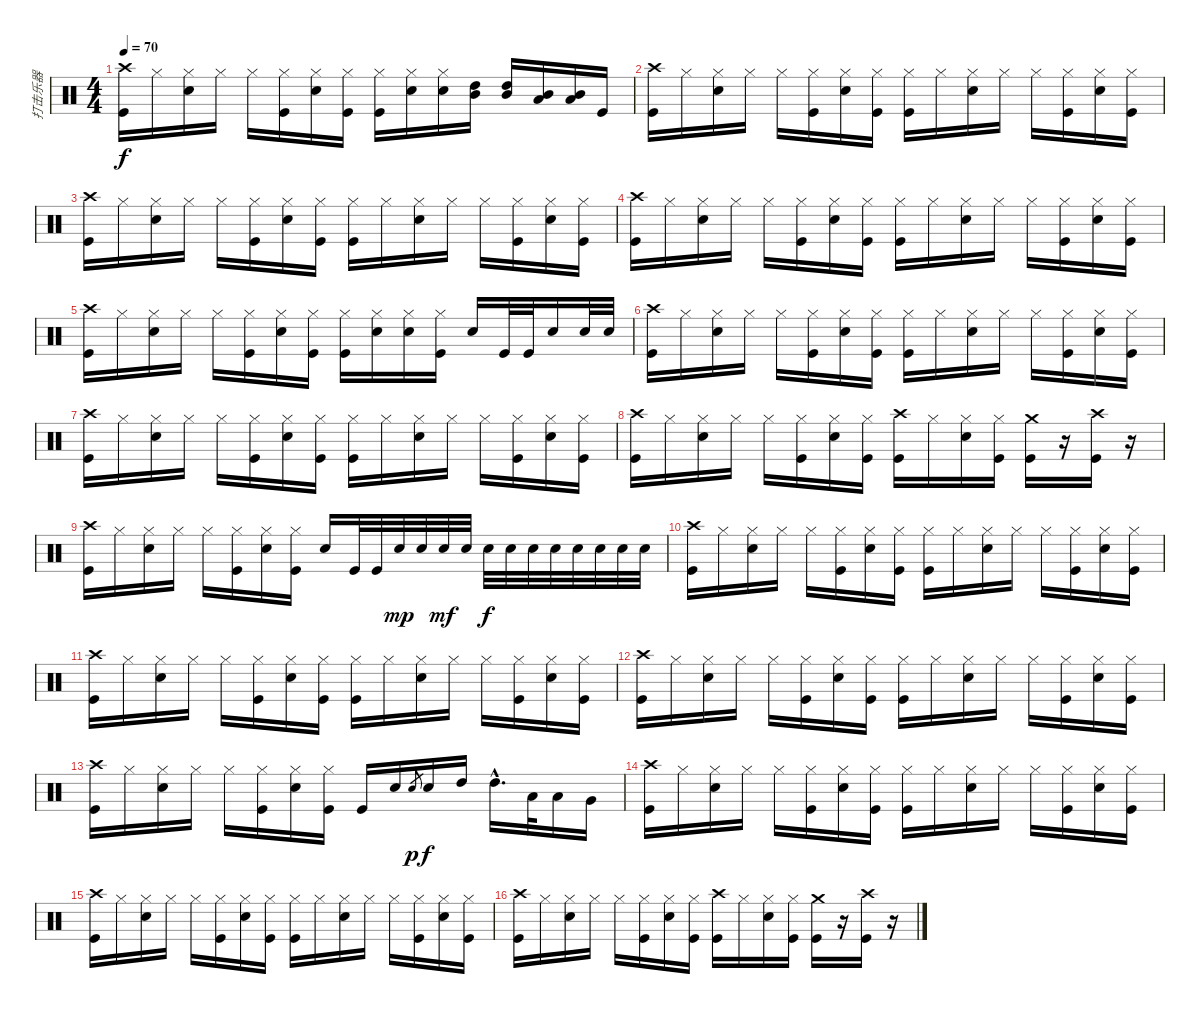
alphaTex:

\track ("打击乐器" "打击乐器") {instrument percussion}
\staff {score}
\articulation defaults
\ts (4 4)
\tempo 70
\clef neutral
\ks c
("Crash high (hit)" "Kick (hit)").16{dy f} "Hi-Hat (closed)".16 ("Hi-Hat (closed)" "Electric Snare (hit)").16 "Hi-Hat (closed)".16 "Hi-Hat (closed)".16 ("Hi-Hat (closed)" "Kick (hit)").16 ("Hi-Hat (closed)" "Electric Snare (hit)").16 ("Hi-Hat (closed)" "Kick (hit)").16 ("Hi-Hat (closed)" "Kick (hit)").16 ("Hi-Hat (closed)" "Electric Snare (hit)").16 ("Hi-Hat (closed)" "Electric Snare (hit)").16 ("High Tom (hit)" "Mid Tom (hit)").16 ("High Tom (hit)" "Mid Tom (hit)").16 ("Mid Tom (hit)" "Low Tom (hit)").16 ("Mid Tom (hit)" "Low Tom (hit)").16 "Kick (hit)".16 |
("Crash high (hit)" "Kick (hit)").16 "Hi-Hat (closed)".16 ("Hi-Hat (closed)" "Electric Snare (hit)").16 "Hi-Hat (closed)".16 "Hi-Hat (closed)".16 ("Hi-Hat (closed)" "Kick (hit)").16 ("Hi-Hat (closed)" "Electric Snare (hit)").16 ("Hi-Hat (closed)" "Kick (hit)").16 ("Hi-Hat (closed)" "Kick (hit)").16 "Hi-Hat (closed)".16 ("Hi-Hat (closed)" "Electric Snare (hit)").16 "Hi-Hat (closed)".16 "Hi-Hat (closed)".16 ("Hi-Hat (closed)" "Kick (hit)").16 ("Hi-Hat (closed)" "Electric Snare (hit)").16 ("Hi-Hat (closed)" "Kick (hit)").16 |
("Crash high (hit)" "Kick (hit)").16 "Hi-Hat (closed)".16 ("Hi-Hat (closed)" "Electric Snare (hit)").16 "Hi-Hat (closed)".16 "Hi-Hat (closed)".16 ("Hi-Hat (closed)" "Kick (hit)").16 ("Hi-Hat (closed)" "Electric Snare (hit)").16 ("Hi-Hat (closed)" "Kick (hit)").16 ("Hi-Hat (closed)" "Kick (hit)").16 "Hi-Hat (closed)".16 ("Hi-Hat (closed)" "Electric Snare (hit)").16 "Hi-Hat (closed)".16 "Hi-Hat (closed)".16 ("Hi-Hat (closed)" "Kick (hit)").16 ("Hi-Hat (closed)" "Electric Snare (hit)").16 ("Hi-Hat (closed)" "Kick (hit)").16 |
("Crash high (hit)" "Kick (hit)").16 "Hi-Hat (closed)".16 ("Hi-Hat (closed)" "Electric Snare (hit)").16 "Hi-Hat (closed)".16 "Hi-Hat (closed)".16 ("Hi-Hat (closed)" "Kick (hit)").16 ("Hi-Hat (closed)" "Electric Snare (hit)").16 ("Hi-Hat (closed)" "Kick (hit)").16 ("Hi-Hat (closed)" "Kick (hit)").16 "Hi-Hat (closed)".16 ("Hi-Hat (closed)" "Electric Snare (hit)").16 "Hi-Hat (closed)".16 "Hi-Hat (closed)".16 ("Hi-Hat (closed)" "Kick (hit)").16 ("Hi-Hat (closed)" "Electric Snare (hit)").16 ("Hi-Hat (closed)" "Kick (hit)").16 |
("Crash high (hit)" "Kick (hit)").16 "Hi-Hat (closed)".16 ("Hi-Hat (closed)" "Electric Snare (hit)").16 "Hi-Hat (closed)".16 "Hi-Hat (closed)".16 ("Hi-Hat (closed)" "Kick (hit)").16 ("Hi-Hat (closed)" "Electric Snare (hit)").16 ("Hi-Hat (closed)" "Kick (hit)").16 ("Hi-Hat (closed)" "Kick (hit)").16 ("Hi-Hat (closed)" "Electric Snare (hit)").16 ("Hi-Hat (closed)" "Electric Snare (hit)").16 ("Hi-Hat (closed)" "Kick (hit)").16 "Electric Snare (hit)".16 "Kick (hit)".32 "Kick (hit)".32 "Electric Snare (hit)".16 "Electric Snare (hit)".32 "Electric Snare (hit)".32 |
("Crash high (hit)" "Kick (hit)").16 "Hi-Hat (closed)".16 ("Hi-Hat (closed)" "Electric Snare (hit)").16 "Hi-Hat (closed)".16 "Hi-Hat (closed)".16 ("Hi-Hat (closed)" "Kick (hit)").16 ("Hi-Hat (closed)" "Electric Snare (hit)").16 ("Hi-Hat (closed)" "Kick (hit)").16 ("Hi-Hat (closed)" "Kick (hit)").16 "Hi-Hat (closed)".16 ("Hi-Hat (closed)" "Electric Snare (hit)").16 "Hi-Hat (closed)".16 "Hi-Hat (closed)".16 ("Hi-Hat (closed)" "Kick (hit)").16 ("Hi-Hat (closed)" "Electric Snare (hit)").16 ("Hi-Hat (closed)" "Kick (hit)").16 |
("Crash high (hit)" "Kick (hit)").16 "Hi-Hat (closed)".16 ("Hi-Hat (closed)" "Electric Snare (hit)").16 "Hi-Hat (closed)".16 "Hi-Hat (closed)".16 ("Hi-Hat (closed)" "Kick (hit)").16 ("Hi-Hat (closed)" "Electric Snare (hit)").16 ("Hi-Hat (closed)" "Kick (hit)").16 ("Hi-Hat (closed)" "Kick (hit)").16 "Hi-Hat (closed)".16 ("Hi-Hat (closed)" "Electric Snare (hit)").16 "Hi-Hat (closed)".16 "Hi-Hat (closed)".16 ("Hi-Hat (closed)" "Kick (hit)").16 ("Hi-Hat (closed)" "Electric Snare (hit)").16 ("Hi-Hat (closed)" "Kick (hit)").16 |
("Crash high (hit)" "Kick (hit)").16 "Hi-Hat (closed)".16 ("Hi-Hat (closed)" "Electric Snare (hit)").16 "Hi-Hat (closed)".16 "Hi-Hat (closed)".16 ("Hi-Hat (closed)" "Kick (hit)").16 ("Hi-Hat (closed)" "Electric Snare (hit)").16 ("Hi-Hat (closed)" "Kick (hit)").16 ("Crash high (hit)" "Kick (hit)").16 "Hi-Hat (closed)".16 ("Hi-Hat (closed)" "Electric Snare (hit)").16 ("Hi-Hat (closed)" "Kick (hit)").16 ("Crash medium (hit)" "Kick (hit)").16 r.16 ("Crash high (hit)" "Kick (hit)").16 r.16 |
("Crash high (hit)" "Kick (hit)").16 "Hi-Hat (closed)".16 ("Hi-Hat (closed)" "Electric Snare (hit)").16 "Hi-Hat (closed)".16 "Hi-Hat (closed)".16 ("Hi-Hat (closed)" "Kick (hit)").16 ("Hi-Hat (closed)" "Electric Snare (hit)").16 ("Hi-Hat (closed)" "Kick (hit)").16 "Electric Snare (hit)".16 "Kick (hit)".32 "Kick (hit)".32 "Electric Snare (hit)".32{dy mp} "Electric Snare (hit)".32 "Electric Snare (hit)".32{dy mf} "Electric Snare (hit)".32 "Electric Snare (hit)".32{dy f} "Electric Snare (hit)".32 "Electric Snare (hit)".32 "Electric Snare (hit)".32 "Electric Snare (hit)".32 "Electric Snare (hit)".32 "Electric Snare (hit)".32 "Electric Snare (hit)".32 |
("Crash high (hit)" "Kick (hit)").16 "Hi-Hat (closed)".16 ("Hi-Hat (closed)" "Electric Snare (hit)").16 "Hi-Hat (closed)".16 "Hi-Hat (closed)".16 ("Hi-Hat (closed)" "Kick (hit)").16 ("Hi-Hat (closed)" "Electric Snare (hit)").16 ("Hi-Hat (closed)" "Kick (hit)").16 ("Hi-Hat (closed)" "Kick (hit)").16 "Hi-Hat (closed)".16 ("Hi-Hat (closed)" "Electric Snare (hit)").16 "Hi-Hat (closed)".16 "Hi-Hat (closed)".16 ("Hi-Hat (closed)" "Kick (hit)").16 ("Hi-Hat (closed)" "Electric Snare (hit)").16 ("Hi-Hat (closed)" "Kick (hit)").16 |
("Crash high (hit)" "Kick (hit)").16 "Hi-Hat (closed)".16 ("Hi-Hat (closed)" "Electric Snare (hit)").16 "Hi-Hat (closed)".16 "Hi-Hat (closed)".16 ("Hi-Hat (closed)" "Kick (hit)").16 ("Hi-Hat (closed)" "Electric Snare (hit)").16 ("Hi-Hat (closed)" "Kick (hit)").16 ("Hi-Hat (closed)" "Kick (hit)").16 "Hi-Hat (closed)".16 ("Hi-Hat (closed)" "Electric Snare (hit)").16 "Hi-Hat (closed)".16 "Hi-Hat (closed)".16 ("Hi-Hat (closed)" "Kick (hit)").16 ("Hi-Hat (closed)" "Electric Snare (hit)").16 ("Hi-Hat (closed)" "Kick (hit)").16 |
("Crash high (hit)" "Kick (hit)").16 "Hi-Hat (closed)".16 ("Hi-Hat (closed)" "Electric Snare (hit)").16 "Hi-Hat (closed)".16 "Hi-Hat (closed)".16 ("Hi-Hat (closed)" "Kick (hit)").16 ("Hi-Hat (closed)" "Electric Snare (hit)").16 ("Hi-Hat (closed)" "Kick (hit)").16 ("Hi-Hat (closed)" "Kick (hit)").16 "Hi-Hat (closed)".16 ("Hi-Hat (closed)" "Electric Snare (hit)").16 "Hi-Hat (closed)".16 "Hi-Hat (closed)".16 ("Hi-Hat (closed)" "Kick (hit)").16 ("Hi-Hat (closed)" "Electric Snare (hit)").16 ("Hi-Hat (closed)" "Kick (hit)").16 |
("Crash high (hit)" "Kick (hit)").16 "Hi-Hat (closed)".16 ("Hi-Hat (closed)" "Electric Snare (hit)").16 "Hi-Hat (closed)".16 "Hi-Hat (closed)".16 ("Hi-Hat (closed)" "Kick (hit)").16 ("Hi-Hat (closed)" "Electric Snare (hit)").16 ("Hi-Hat (closed)" "Kick (hit)").16 "Kick (hit)".16 "Electric Snare (hit)".16 "Electric Snare (hit)".8{gr dy p} "Electric Snare (hit)".16{dy f} "High Tom (hit)".16 "High Tom (hit)"{hac}.16{d} "Low Tom (hit)".32 "Low Tom (hit)".16 "Very Low Tom (hit)".16 |
("Crash high (hit)" "Kick (hit)").16 "Hi-Hat (closed)".16 ("Hi-Hat (closed)" "Electric Snare (hit)").16 "Hi-Hat (closed)".16 "Hi-Hat (closed)".16 ("Hi-Hat (closed)" "Kick (hit)").16 ("Hi-Hat (closed)" "Electric Snare (hit)").16 ("Hi-Hat (closed)" "Kick (hit)").16 ("Hi-Hat (closed)" "Kick (hit)").16 "Hi-Hat (closed)".16 ("Hi-Hat (closed)" "Electric Snare (hit)").16 "Hi-Hat (closed)".16 "Hi-Hat (closed)".16 ("Hi-Hat (closed)" "Kick (hit)").16 ("Hi-Hat (closed)" "Electric Snare (hit)").16 ("Hi-Hat (closed)" "Kick (hit)").16 |
("Crash high (hit)" "Kick (hit)").16 "Hi-Hat (closed)".16 ("Hi-Hat (closed)" "Electric Snare (hit)").16 "Hi-Hat (closed)".16 "Hi-Hat (closed)".16 ("Hi-Hat (closed)" "Kick (hit)").16 ("Hi-Hat (closed)" "Electric Snare (hit)").16 ("Hi-Hat (closed)" "Kick (hit)").16 ("Hi-Hat (closed)" "Kick (hit)").16 "Hi-Hat (closed)".16 ("Hi-Hat (closed)" "Electric Snare (hit)").16 "Hi-Hat (closed)".16 "Hi-Hat (closed)".16 ("Hi-Hat (closed)" "Kick (hit)").16 ("Hi-Hat (closed)" "Electric Snare (hit)").16 ("Hi-Hat (closed)" "Kick (hit)").16 |
("Crash high (hit)" "Kick (hit)").16 "Hi-Hat (closed)".16 ("Hi-Hat (closed)" "Electric Snare (hit)").16 "Hi-Hat (closed)".16 "Hi-Hat (closed)".16 ("Hi-Hat (closed)" "Kick (hit)").16 ("Hi-Hat (closed)" "Electric Snare (hit)").16 ("Hi-Hat (closed)" "Kick (hit)").16 ("Crash high (hit)" "Kick (hit)").16 "Hi-Hat (closed)".16 ("Hi-Hat (closed)" "Electric Snare (hit)").16 ("Hi-Hat (closed)" "Kick (hit)").16 ("Crash medium (hit)" "Kick (hit)").16 r.16 ("Crash high (hit)" "Kick (hit)").16 r.16
